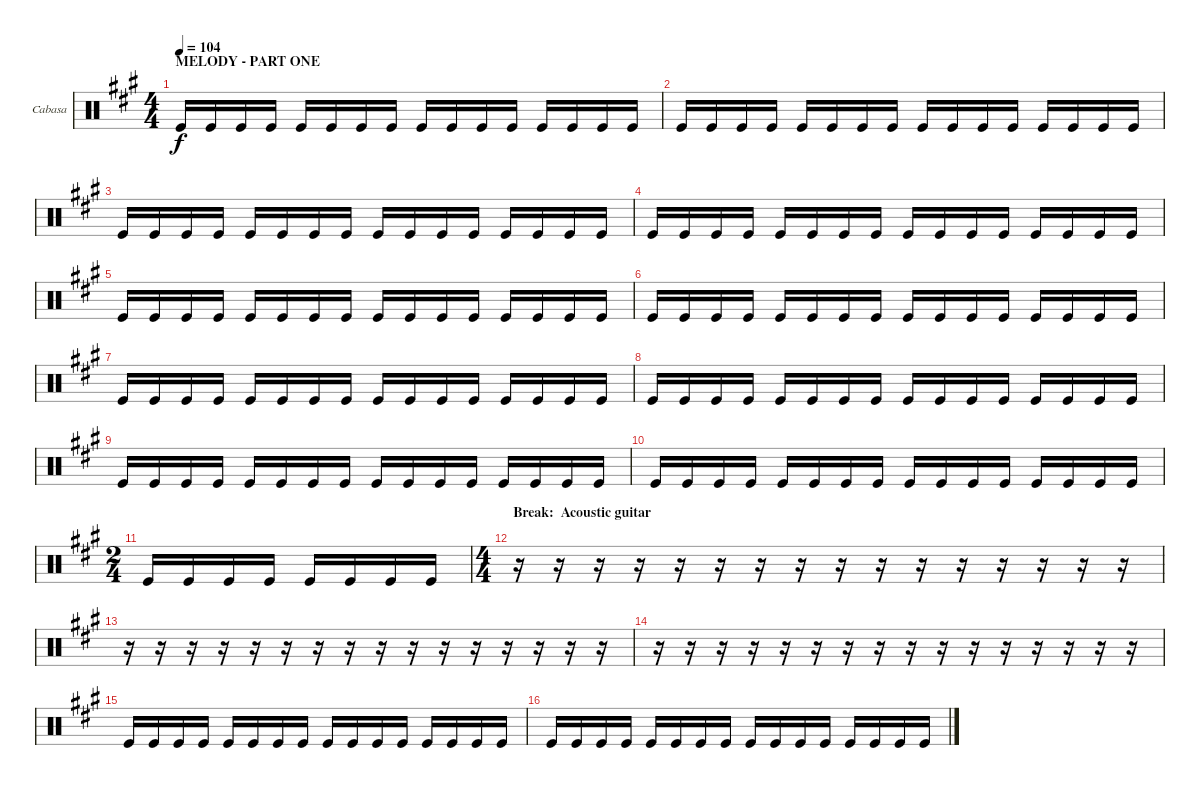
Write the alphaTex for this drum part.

\bracketExtendMode groupsimilarinstruments
\firstSystemTrackNameOrientation horizontal
\otherSystemsTrackNameOrientation horizontal
\track ("Cabasa" "Cabasa") {instrument percussion}
\staff {score}
\articulation defaults
\ts (4 4)
\section ("" "MELODY - PART ONE")
\tempo 104
\clef neutral
\ks a "Kick (hit)".16{dy f} "Kick (hit)".16 "Kick (hit)".16 "Kick (hit)".16 "Kick (hit)".16 "Kick (hit)".16 "Kick (hit)".16 "Kick (hit)".16 "Kick (hit)".16 "Kick (hit)".16 "Kick (hit)".16 "Kick (hit)".16 "Kick (hit)".16 "Kick (hit)".16 "Kick (hit)".16 "Kick (hit)".16
|
"Kick (hit)".16 "Kick (hit)".16 "Kick (hit)".16 "Kick (hit)".16 "Kick (hit)".16 "Kick (hit)".16 "Kick (hit)".16 "Kick (hit)".16 "Kick (hit)".16 "Kick (hit)".16 "Kick (hit)".16 "Kick (hit)".16 "Kick (hit)".16 "Kick (hit)".16 "Kick (hit)".16 "Kick (hit)".16 |
"Kick (hit)".16 "Kick (hit)".16 "Kick (hit)".16 "Kick (hit)".16 "Kick (hit)".16 "Kick (hit)".16 "Kick (hit)".16 "Kick (hit)".16 "Kick (hit)".16 "Kick (hit)".16 "Kick (hit)".16 "Kick (hit)".16 "Kick (hit)".16 "Kick (hit)".16 "Kick (hit)".16 "Kick (hit)".16 |
"Kick (hit)".16 "Kick (hit)".16 "Kick (hit)".16 "Kick (hit)".16 "Kick (hit)".16 "Kick (hit)".16 "Kick (hit)".16 "Kick (hit)".16 "Kick (hit)".16 "Kick (hit)".16 "Kick (hit)".16 "Kick (hit)".16 "Kick (hit)".16 "Kick (hit)".16 "Kick (hit)".16 "Kick (hit)".16 |
"Kick (hit)".16 "Kick (hit)".16 "Kick (hit)".16 "Kick (hit)".16 "Kick (hit)".16 "Kick (hit)".16 "Kick (hit)".16 "Kick (hit)".16 "Kick (hit)".16 "Kick (hit)".16 "Kick (hit)".16 "Kick (hit)".16 "Kick (hit)".16 "Kick (hit)".16 "Kick (hit)".16 "Kick (hit)".16 |
"Kick (hit)".16 "Kick (hit)".16 "Kick (hit)".16 "Kick (hit)".16 "Kick (hit)".16 "Kick (hit)".16 "Kick (hit)".16 "Kick (hit)".16 "Kick (hit)".16 "Kick (hit)".16 "Kick (hit)".16 "Kick (hit)".16 "Kick (hit)".16 "Kick (hit)".16 "Kick (hit)".16 "Kick (hit)".16 |
"Kick (hit)".16 "Kick (hit)".16 "Kick (hit)".16 "Kick (hit)".16 "Kick (hit)".16 "Kick (hit)".16 "Kick (hit)".16 "Kick (hit)".16 "Kick (hit)".16 "Kick (hit)".16 "Kick (hit)".16 "Kick (hit)".16 "Kick (hit)".16 "Kick (hit)".16 "Kick (hit)".16 "Kick (hit)".16 |
"Kick (hit)".16 "Kick (hit)".16 "Kick (hit)".16 "Kick (hit)".16 "Kick (hit)".16 "Kick (hit)".16 "Kick (hit)".16 "Kick (hit)".16 "Kick (hit)".16 "Kick (hit)".16 "Kick (hit)".16 "Kick (hit)".16 "Kick (hit)".16 "Kick (hit)".16 "Kick (hit)".16 "Kick (hit)".16 |
"Kick (hit)".16 "Kick (hit)".16 "Kick (hit)".16 "Kick (hit)".16 "Kick (hit)".16 "Kick (hit)".16 "Kick (hit)".16 "Kick (hit)".16 "Kick (hit)".16 "Kick (hit)".16 "Kick (hit)".16 "Kick (hit)".16 "Kick (hit)".16 "Kick (hit)".16 "Kick (hit)".16 "Kick (hit)".16 |
"Kick (hit)".16 "Kick (hit)".16 "Kick (hit)".16 "Kick (hit)".16 "Kick (hit)".16 "Kick (hit)".16 "Kick (hit)".16 "Kick (hit)".16 "Kick (hit)".16 "Kick (hit)".16 "Kick (hit)".16 "Kick (hit)".16 "Kick (hit)".16 "Kick (hit)".16 "Kick (hit)".16 "Kick (hit)".16 |
\ts (2 4)
"Kick (hit)".16 "Kick (hit)".16 "Kick (hit)".16 "Kick (hit)".16 "Kick (hit)".16 "Kick (hit)".16 "Kick (hit)".16 "Kick (hit)".16 |
\ts (4 4)
\section ("" "Break:  Acoustic guitar")
r.16 r.16 r.16 r.16 r.16 r.16 r.16 r.16 r.16 r.16 r.16 r.16 r.16 r.16 r.16 r.16 |
r.16 r.16 r.16 r.16 r.16 r.16 r.16 r.16 r.16 r.16 r.16 r.16 r.16 r.16 r.16 r.16 |
r.16 r.16 r.16 r.16 r.16 r.16 r.16 r.16 r.16 r.16 r.16 r.16 r.16 r.16 r.16 r.16 |
"Kick (hit)".16 "Kick (hit)".16 "Kick (hit)".16 "Kick (hit)".16 "Kick (hit)".16 "Kick (hit)".16 "Kick (hit)".16 "Kick (hit)".16 "Kick (hit)".16 "Kick (hit)".16 "Kick (hit)".16 "Kick (hit)".16 "Kick (hit)".16 "Kick (hit)".16 "Kick (hit)".16 "Kick (hit)".16 |
"Kick (hit)".16 "Kick (hit)".16 "Kick (hit)".16 "Kick (hit)".16 "Kick (hit)".16 "Kick (hit)".16 "Kick (hit)".16 "Kick (hit)".16 "Kick (hit)".16 "Kick (hit)".16 "Kick (hit)".16 "Kick (hit)".16 "Kick (hit)".16 "Kick (hit)".16 "Kick (hit)".16 "Kick (hit)".16
